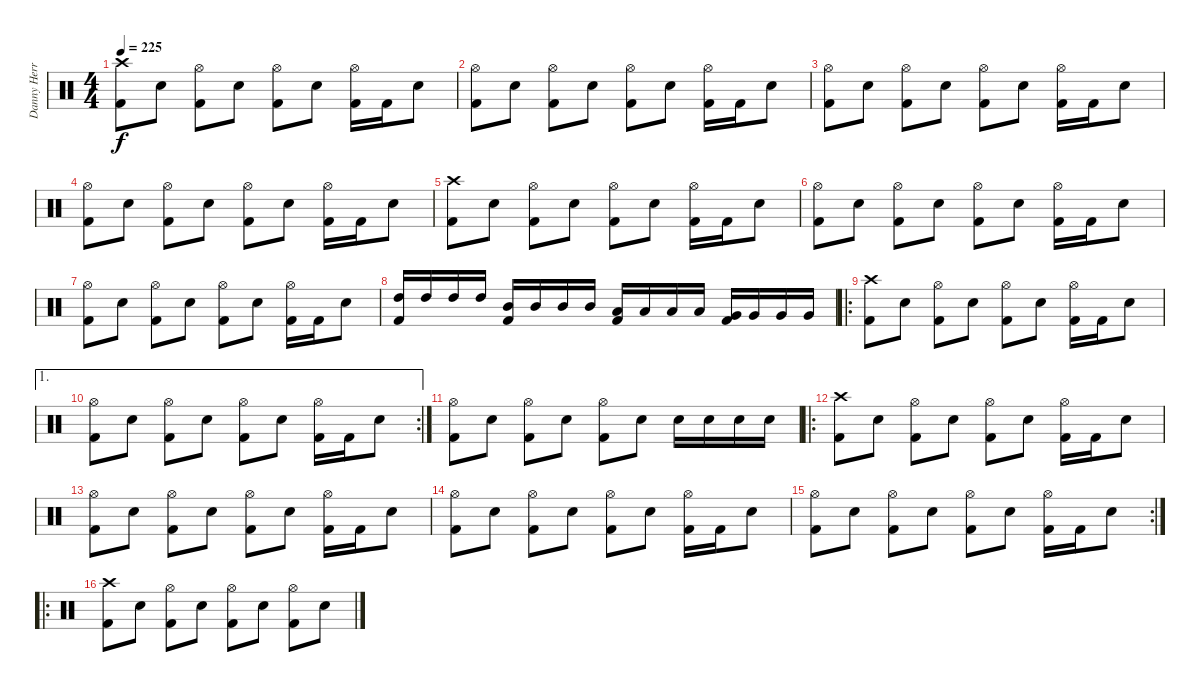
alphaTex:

\track ("Danny Herrera - Drums" "Danny Herr") {instrument percussion}
\staff {score}
\articulation defaults
\ts (4 4)
\tempo 225
\clef neutral
\ks c
("Crash high (hit)" "Kick (hit) 2").8{dy f} "Electric Snare (hit)".8 ("Hi-Hat (open)" "Kick (hit) 2").8 "Electric Snare (hit)".8 ("Hi-Hat (open)" "Kick (hit) 2").8 "Electric Snare (hit)".8 ("Hi-Hat (open)" "Kick (hit) 2").16 "Kick (hit) 2".16 "Electric Snare (hit)".8 |
("Hi-Hat (open)" "Kick (hit) 2").8 "Electric Snare (hit)".8 ("Hi-Hat (open)" "Kick (hit) 2").8 "Electric Snare (hit)".8 ("Hi-Hat (open)" "Kick (hit) 2").8 "Electric Snare (hit)".8 ("Hi-Hat (open)" "Kick (hit) 2").16 "Kick (hit) 2".16 "Electric Snare (hit)".8 |
("Hi-Hat (open)" "Kick (hit) 2").8 "Electric Snare (hit)".8 ("Hi-Hat (open)" "Kick (hit) 2").8 "Electric Snare (hit)".8 ("Hi-Hat (open)" "Kick (hit) 2").8 "Electric Snare (hit)".8 ("Hi-Hat (open)" "Kick (hit) 2").16 "Kick (hit) 2".16 "Electric Snare (hit)".8 |
("Hi-Hat (open)" "Kick (hit) 2").8 "Electric Snare (hit)".8 ("Hi-Hat (open)" "Kick (hit) 2").8 "Electric Snare (hit)".8 ("Hi-Hat (open)" "Kick (hit) 2").8 "Electric Snare (hit)".8 ("Hi-Hat (open)" "Kick (hit) 2").16 "Kick (hit) 2".16 "Electric Snare (hit)".8 |
("Crash high (hit)" "Kick (hit) 2").8 "Electric Snare (hit)".8 ("Hi-Hat (open)" "Kick (hit) 2").8 "Electric Snare (hit)".8 ("Hi-Hat (open)" "Kick (hit) 2").8 "Electric Snare (hit)".8 ("Hi-Hat (open)" "Kick (hit) 2").16 "Kick (hit) 2".16 "Electric Snare (hit)".8 |
("Hi-Hat (open)" "Kick (hit) 2").8 "Electric Snare (hit)".8 ("Hi-Hat (open)" "Kick (hit) 2").8 "Electric Snare (hit)".8 ("Hi-Hat (open)" "Kick (hit) 2").8 "Electric Snare (hit)".8 ("Hi-Hat (open)" "Kick (hit) 2").16 "Kick (hit) 2".16 "Electric Snare (hit)".8 |
("Hi-Hat (open)" "Kick (hit) 2").8 "Electric Snare (hit)".8 ("Hi-Hat (open)" "Kick (hit) 2").8 "Electric Snare (hit)".8 ("Hi-Hat (open)" "Kick (hit) 2").8 "Electric Snare (hit)".8 ("Hi-Hat (open)" "Kick (hit) 2").16 "Kick (hit) 2".16 "Electric Snare (hit)".8 |
("High Tom (hit)" "Kick (hit) 2").16 "High Tom (hit)".16 "High Tom (hit)".16 "High Tom (hit)".16 ("Mid Tom (hit)" "Kick (hit) 2").16 "Mid Tom (hit)".16 "Mid Tom (hit)".16 "Mid Tom (hit)".16 ("Low Tom (hit)" "Kick (hit) 2").16 "Low Tom (hit)".16 "Low Tom (hit)".16 "Low Tom (hit)".16 ("Very Low Tom (hit)" "Kick (hit) 2").16 "Very Low Tom (hit)".16 "Very Low Tom (hit)".16 "Very Low Tom (hit)".16 |
\ro
("Crash high (hit)" "Kick (hit) 2").8 "Electric Snare (hit)".8 ("Hi-Hat (open)" "Kick (hit) 2").8 "Electric Snare (hit)".8 ("Hi-Hat (open)" "Kick (hit) 2").8 "Electric Snare (hit)".8 ("Hi-Hat (open)" "Kick (hit) 2").16 "Kick (hit) 2".16 "Electric Snare (hit)".8 |
\ae 1
\rc 2
("Hi-Hat (open)" "Kick (hit) 2").8 "Electric Snare (hit)".8 ("Hi-Hat (open)" "Kick (hit) 2").8 "Electric Snare (hit)".8 ("Hi-Hat (open)" "Kick (hit) 2").8 "Electric Snare (hit)".8 ("Hi-Hat (open)" "Kick (hit) 2").16 "Kick (hit) 2".16 "Electric Snare (hit)".8 |
("Hi-Hat (open)" "Kick (hit) 2").8 "Electric Snare (hit)".8 ("Hi-Hat (open)" "Kick (hit) 2").8 "Electric Snare (hit)".8 ("Hi-Hat (open)" "Kick (hit) 2").8 "Electric Snare (hit)".8 "Electric Snare (hit)".16 "Electric Snare (hit)".16 "Electric Snare (hit)".16 "Electric Snare (hit)".16 |
\ro
("Crash high (hit)" "Kick (hit) 2").8 "Electric Snare (hit)".8 ("Hi-Hat (open)" "Kick (hit) 2").8 "Electric Snare (hit)".8 ("Hi-Hat (open)" "Kick (hit) 2").8 "Electric Snare (hit)".8 ("Hi-Hat (open)" "Kick (hit) 2").16 "Kick (hit) 2".16 "Electric Snare (hit)".8 |
("Hi-Hat (open)" "Kick (hit) 2").8 "Electric Snare (hit)".8 ("Hi-Hat (open)" "Kick (hit) 2").8 "Electric Snare (hit)".8 ("Hi-Hat (open)" "Kick (hit) 2").8 "Electric Snare (hit)".8 ("Hi-Hat (open)" "Kick (hit) 2").16 "Kick (hit) 2".16 "Electric Snare (hit)".8 |
("Hi-Hat (open)" "Kick (hit) 2").8 "Electric Snare (hit)".8 ("Hi-Hat (open)" "Kick (hit) 2").8 "Electric Snare (hit)".8 ("Hi-Hat (open)" "Kick (hit) 2").8 "Electric Snare (hit)".8 ("Hi-Hat (open)" "Kick (hit) 2").16 "Kick (hit) 2".16 "Electric Snare (hit)".8 |
\rc 2
("Hi-Hat (open)" "Kick (hit) 2").8 "Electric Snare (hit)".8 ("Hi-Hat (open)" "Kick (hit) 2").8 "Electric Snare (hit)".8 ("Hi-Hat (open)" "Kick (hit) 2").8 "Electric Snare (hit)".8 ("Hi-Hat (open)" "Kick (hit) 2").16 "Kick (hit) 2".16 "Electric Snare (hit)".8 |
\ro
("Crash high (hit)" "Kick (hit) 2").8 "Electric Snare (hit)".8 ("Hi-Hat (open)" "Kick (hit) 2").8 "Electric Snare (hit)".8 ("Hi-Hat (open)" "Kick (hit) 2").8 "Electric Snare (hit)".8 ("Hi-Hat (open)" "Kick (hit) 2").8 "Electric Snare (hit)".8
